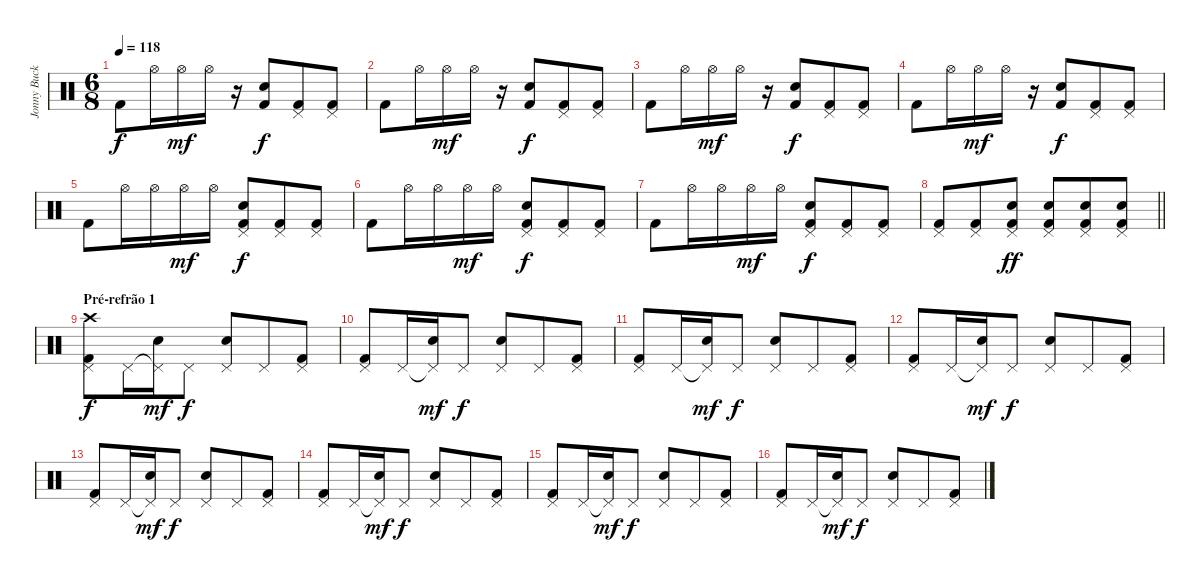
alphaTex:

\track ("Jonny Buckland (batera)" "Jonny Buck") {instrument percussion}
\staff {score}
\articulation defaults
\ts (6 8)
\tempo 118
\clef neutral
\ks c "Kick (hit) 2".8{dy f} "Hi-Hat (open)".16 "Hi-Hat (open)".16{dy mf} "Hi-Hat (open)".16
r.16 ("Electric Snare (hit)" "Kick (hit) 2").8{dy f} ("Pedal Hi-Hat (hit)" "Kick (hit) 2").8 ("Pedal Hi-Hat (hit)" "Kick (hit) 2").8 |
"Kick (hit) 2".8 "Hi-Hat (open)".16 "Hi-Hat (open)".16{dy mf} "Hi-Hat (open)".16 r.16 ("Electric Snare (hit)" "Kick (hit) 2").8{dy f} ("Pedal Hi-Hat (hit)" "Kick (hit) 2").8 ("Pedal Hi-Hat (hit)" "Kick (hit) 2").8 |
"Kick (hit) 2".8 "Hi-Hat (open)".16 "Hi-Hat (open)".16{dy mf} "Hi-Hat (open)".16 r.16 ("Electric Snare (hit)" "Kick (hit) 2").8{dy f} ("Pedal Hi-Hat (hit)" "Kick (hit) 2").8 ("Pedal Hi-Hat (hit)" "Kick (hit) 2").8 |
"Kick (hit) 2".8 "Hi-Hat (open)".16 "Hi-Hat (open)".16{dy mf} "Hi-Hat (open)".16 r.16 ("Electric Snare (hit)" "Kick (hit) 2").8{dy f} ("Pedal Hi-Hat (hit)" "Kick (hit) 2").8 ("Pedal Hi-Hat (hit)" "Kick (hit) 2").8 |
"Kick (hit) 2".8 "Hi-Hat (open)".16 "Hi-Hat (open)".16 "Hi-Hat (open)".16{dy mf} "Hi-Hat (open)".16 ("Pedal Hi-Hat (hit)" "Electric Snare (hit)" "Kick (hit) 2").8{dy f} ("Pedal Hi-Hat (hit)" "Kick (hit) 2").8 ("Pedal Hi-Hat (hit)" "Kick (hit) 2").8 |
"Kick (hit) 2".8 "Hi-Hat (open)".16 "Hi-Hat (open)".16 "Hi-Hat (open)".16{dy mf} "Hi-Hat (open)".16 ("Pedal Hi-Hat (hit)" "Electric Snare (hit)" "Kick (hit) 2").8{dy f} ("Pedal Hi-Hat (hit)" "Kick (hit) 2").8 ("Pedal Hi-Hat (hit)" "Kick (hit) 2").8 |
"Kick (hit) 2".8 "Hi-Hat (open)".16 "Hi-Hat (open)".16 "Hi-Hat (open)".16{dy mf} "Hi-Hat (open)".16 ("Pedal Hi-Hat (hit)" "Electric Snare (hit)" "Kick (hit) 2").8{dy f} ("Pedal Hi-Hat (hit)" "Kick (hit) 2").8 ("Pedal Hi-Hat (hit)" "Kick (hit) 2").8 |
\barLineRight lightlight
("Pedal Hi-Hat (hit)" "Kick (hit) 2").8 ("Pedal Hi-Hat (hit)" "Kick (hit) 2").8 ("Pedal Hi-Hat (hit)" "Electric Snare (hit)" "Kick (hit) 2").8{dy ff} ("Pedal Hi-Hat (hit)" "Electric Snare (hit)" "Kick (hit) 2").8 ("Pedal Hi-Hat (hit)" "Electric Snare (hit)" "Kick (hit) 2").8 ("Pedal Hi-Hat (hit)" "Electric Snare (hit)" "Kick (hit) 2").8 |
\section ("" "Pré-refrão 1")
("Crash high (hit)" "Pedal Hi-Hat (hit)" "Kick (hit) 2").8{dy f} "Pedal Hi-Hat (hit)".16 ("Pedal Hi-Hat (hit)"{t} "Snare (hit) 2").16{dy mf} "Pedal Hi-Hat (hit)".8{dy f} ("Pedal Hi-Hat (hit)" "Electric Snare (hit)").8 "Pedal Hi-Hat (hit)".8 ("Pedal Hi-Hat (hit)" "Kick (hit) 2").8 |
("Pedal Hi-Hat (hit)" "Kick (hit) 2").8 "Pedal Hi-Hat (hit)".16 ("Pedal Hi-Hat (hit)"{t} "Snare (hit) 2").16{dy mf} "Pedal Hi-Hat (hit)".8{dy f} ("Pedal Hi-Hat (hit)" "Electric Snare (hit)").8 "Pedal Hi-Hat (hit)".8 ("Pedal Hi-Hat (hit)" "Kick (hit) 2").8 |
("Pedal Hi-Hat (hit)" "Kick (hit) 2").8 "Pedal Hi-Hat (hit)".16 ("Pedal Hi-Hat (hit)"{t} "Snare (hit) 2").16{dy mf} "Pedal Hi-Hat (hit)".8{dy f} ("Pedal Hi-Hat (hit)" "Electric Snare (hit)").8 "Pedal Hi-Hat (hit)".8 ("Pedal Hi-Hat (hit)" "Kick (hit) 2").8 |
("Pedal Hi-Hat (hit)" "Kick (hit) 2").8 "Pedal Hi-Hat (hit)".16 ("Pedal Hi-Hat (hit)"{t} "Snare (hit) 2").16{dy mf} "Pedal Hi-Hat (hit)".8{dy f} ("Pedal Hi-Hat (hit)" "Electric Snare (hit)").8 "Pedal Hi-Hat (hit)".8 ("Pedal Hi-Hat (hit)" "Kick (hit) 2").8 |
("Pedal Hi-Hat (hit)" "Kick (hit) 2").8 "Pedal Hi-Hat (hit)".16 ("Pedal Hi-Hat (hit)"{t} "Snare (hit) 2").16{dy mf} "Pedal Hi-Hat (hit)".8{dy f} ("Pedal Hi-Hat (hit)" "Electric Snare (hit)").8 "Pedal Hi-Hat (hit)".8 ("Pedal Hi-Hat (hit)" "Kick (hit) 2").8 |
("Pedal Hi-Hat (hit)" "Kick (hit) 2").8 "Pedal Hi-Hat (hit)".16 ("Pedal Hi-Hat (hit)"{t} "Snare (hit) 2").16{dy mf} "Pedal Hi-Hat (hit)".8{dy f} ("Pedal Hi-Hat (hit)" "Electric Snare (hit)").8 "Pedal Hi-Hat (hit)".8 ("Pedal Hi-Hat (hit)" "Kick (hit) 2").8 |
("Pedal Hi-Hat (hit)" "Kick (hit) 2").8 "Pedal Hi-Hat (hit)".16 ("Pedal Hi-Hat (hit)"{t} "Snare (hit) 2").16{dy mf} "Pedal Hi-Hat (hit)".8{dy f} ("Pedal Hi-Hat (hit)" "Electric Snare (hit)").8 "Pedal Hi-Hat (hit)".8 ("Pedal Hi-Hat (hit)" "Kick (hit) 2").8 |
("Pedal Hi-Hat (hit)" "Kick (hit) 2").8 "Pedal Hi-Hat (hit)".16 ("Pedal Hi-Hat (hit)"{t} "Snare (hit) 2").16{dy mf} "Pedal Hi-Hat (hit)".8{dy f} ("Pedal Hi-Hat (hit)" "Electric Snare (hit)").8 "Pedal Hi-Hat (hit)".8 ("Pedal Hi-Hat (hit)" "Kick (hit) 2").8
